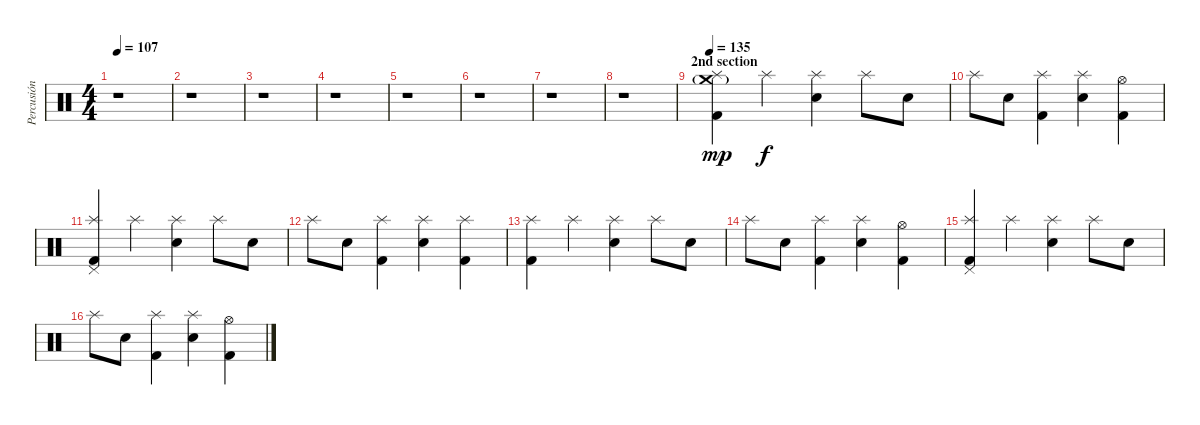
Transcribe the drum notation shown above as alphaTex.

\track ("Percusión" "Percusión") {instrument percussion}
\staff {score}
\articulation defaults
\ts (4 4)
\tempo 107
\clef neutral
\ks c
r.1{dy fff} |
r.1 |
r.1 |
r.1 |
r.1 |
r.1 |
r.1 |
r.1 |
\section ("" "2nd section")
\tempo 135
("Kick (hit) 2" "Splash (hit)" "Crash medium (hit)"{g}).4{dy mp} "Splash (hit)".4{dy f} ("Snare (hit) 2" "Splash (hit)").4 "Splash (hit)".8 "Snare (hit) 2".8 |
"Splash (hit)".8 "Snare (hit) 2".8 ("Kick (hit) 2" "Splash (hit)").4 ("Snare (hit) 2" "Splash (hit)").4 ("Kick (hit) 2" "Hi-Hat (open)").4 |
("Kick (hit) 2" "Pedal Hi-Hat (hit)" "Splash (hit)").4 "Splash (hit)".4 ("Snare (hit) 2" "Splash (hit)").4 "Splash (hit)".8 "Snare (hit) 2".8 |
"Splash (hit)".8 "Snare (hit) 2".8 ("Kick (hit) 2" "Splash (hit)").4 ("Snare (hit) 2" "Splash (hit)").4 ("Kick (hit) 2" "Splash (hit)").4 |
("Kick (hit) 2" "Splash (hit)").4 "Splash (hit)".4 ("Snare (hit) 2" "Splash (hit)").4 "Splash (hit)".8 "Snare (hit) 2".8 |
"Splash (hit)".8 "Snare (hit) 2".8 ("Kick (hit) 2" "Splash (hit)").4 ("Snare (hit) 2" "Splash (hit)").4 ("Kick (hit) 2" "Hi-Hat (open)").4 |
("Kick (hit) 2" "Pedal Hi-Hat (hit)" "Splash (hit)").4 "Splash (hit)".4 ("Snare (hit) 2" "Splash (hit)").4 "Splash (hit)".8 "Snare (hit) 2".8 |
"Splash (hit)".8 "Snare (hit) 2".8 ("Kick (hit) 2" "Splash (hit)").4 ("Snare (hit) 2" "Splash (hit)").4 ("Kick (hit) 2" "Hi-Hat (open)").4
